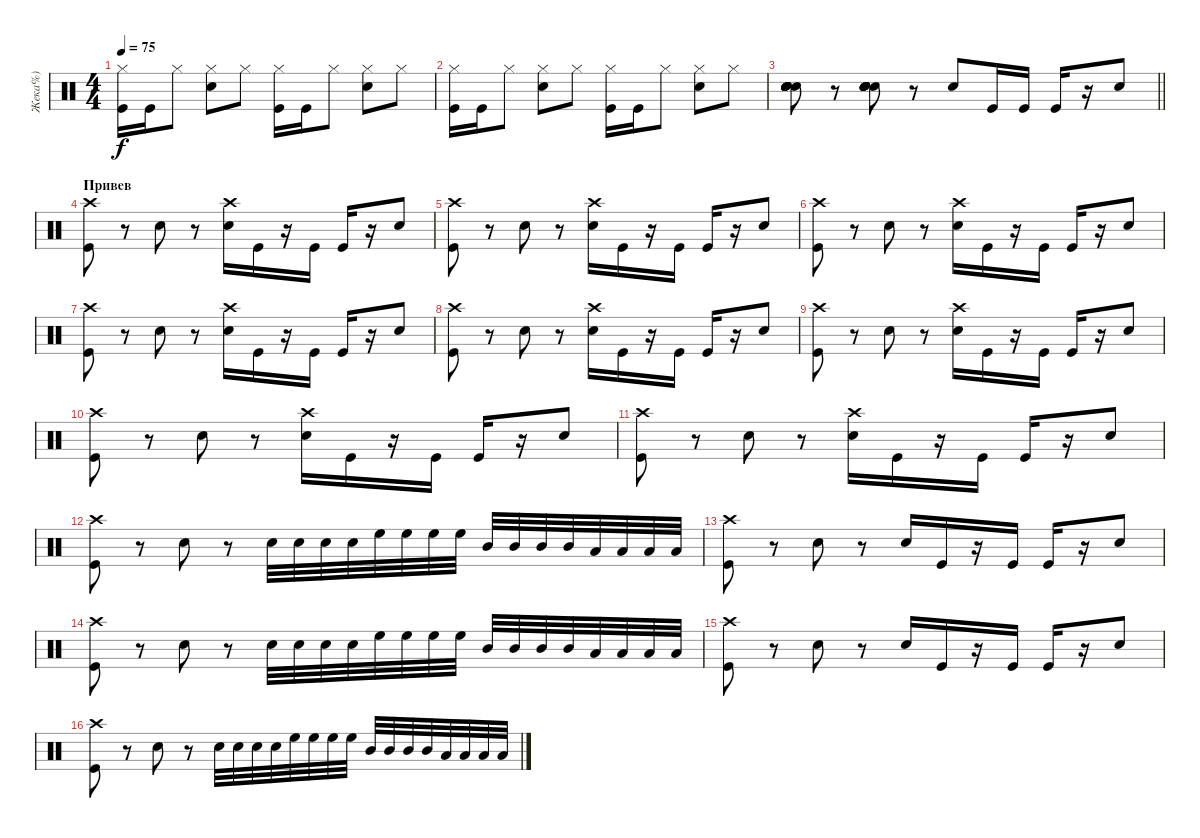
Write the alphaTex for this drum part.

\track ("Жека%)" "Жека%)") {instrument percussion}
\staff {score}
\articulation defaults
\ts (4 4)
\tempo 75
\clef neutral
\ks c
("Hi-Hat (closed)" "Kick (hit)").16{dy f} "Kick (hit)".16 "Hi-Hat (closed)".8 ("Hi-Hat (closed)" "Snare (hit) 2").8 "Hi-Hat (closed)".8 ("Hi-Hat (closed)" "Kick (hit)").16 "Kick (hit)".16 "Hi-Hat (closed)".8 ("Hi-Hat (closed)" "Snare (hit) 2").8 "Hi-Hat (closed)".8 |
("Hi-Hat (closed)" "Kick (hit)").16 "Kick (hit)".16 "Hi-Hat (closed)".8 ("Hi-Hat (closed)" "Snare (hit) 2").8 "Hi-Hat (closed)".8 ("Hi-Hat (closed)" "Kick (hit)").16 "Kick (hit)".16 "Hi-Hat (closed)".8 ("Hi-Hat (closed)" "Snare (hit) 2").8 "Hi-Hat (closed)".8 |
\barLineRight lightlight
("Snare (hit) 2" "Snare (hit) 2" "Snare (hit) 2" "Snare (hit) 2" "Snare (hit) 2" "Snare (hit) 2").8 r.8 ("Snare (hit) 2" "Snare (hit) 2" "Snare (hit) 2" "Snare (hit) 2" "Snare (hit) 2" "Snare (hit) 2").8 r.8 "Snare (hit) 2".8 "Kick (hit)".16 "Kick (hit)".16 "Kick (hit)".16 r.16 "Snare (hit) 2".8 |
\section ("" "Привев")
("Kick (hit)" "Crash high (hit)").8 r.8 "Snare (hit) 2".8 r.8 ("Snare (hit) 2" "Crash high (hit)").16 "Kick (hit)".16 r.16 "Kick (hit)".16 "Kick (hit)".16 r.16 "Snare (hit) 2".8 |
("Kick (hit)" "Crash high (hit)").8 r.8 "Snare (hit) 2".8 r.8 ("Snare (hit) 2" "Crash high (hit)").16 "Kick (hit)".16 r.16 "Kick (hit)".16 "Kick (hit)".16 r.16 "Snare (hit) 2".8 |
("Kick (hit)" "Crash high (hit)").8 r.8 "Snare (hit) 2".8 r.8 ("Snare (hit) 2" "Crash high (hit)").16 "Kick (hit)".16 r.16 "Kick (hit)".16 "Kick (hit)".16 r.16 "Snare (hit) 2".8 |
("Kick (hit)" "Crash high (hit)").8 r.8 "Snare (hit) 2".8 r.8 ("Snare (hit) 2" "Crash high (hit)").16 "Kick (hit)".16 r.16 "Kick (hit)".16 "Kick (hit)".16 r.16 "Snare (hit) 2".8 |
("Kick (hit)" "Crash high (hit)").8 r.8 "Snare (hit) 2".8 r.8 ("Snare (hit) 2" "Crash high (hit)").16 "Kick (hit)".16 r.16 "Kick (hit)".16 "Kick (hit)".16 r.16 "Snare (hit) 2".8 |
("Kick (hit)" "Crash high (hit)").8 r.8 "Snare (hit) 2".8 r.8 ("Snare (hit) 2" "Crash high (hit)").16 "Kick (hit)".16 r.16 "Kick (hit)".16 "Kick (hit)".16 r.16 "Snare (hit) 2".8 |
("Kick (hit)" "Crash high (hit)").8 r.8 "Snare (hit) 2".8 r.8 ("Snare (hit) 2" "Crash high (hit)").16 "Kick (hit)".16 r.16 "Kick (hit)".16 "Kick (hit)".16 r.16 "Snare (hit) 2".8 |
("Kick (hit)" "Crash high (hit)").8 r.8 "Snare (hit) 2".8 r.8 ("Snare (hit) 2" "Crash high (hit)").16 "Kick (hit)".16 r.16 "Kick (hit)".16 "Kick (hit)".16 r.16 "Snare (hit) 2".8 |
("Kick (hit)" "Crash high (hit)").8 r.8 "Snare (hit) 2".8 r.8 "Snare (hit) 2".32 "Snare (hit) 2".32 "Snare (hit) 2".32 "Snare (hit) 2".32 "High Floor Tom (hit)".32 "High Floor Tom (hit)".32 "High Floor Tom (hit)".32 "High Floor Tom (hit)".32 "Mid Tom (hit)".32 "Mid Tom (hit)".32 "Mid Tom (hit)".32 "Mid Tom (hit)".32 "Low Tom (hit)".32 "Low Tom (hit)".32 "Low Tom (hit)".32 "Low Tom (hit)".32 |
("Kick (hit)" "Crash high (hit)").8 r.8 "Snare (hit) 2".8 r.8 "Snare (hit) 2".16 "Kick (hit)".16 r.16 "Kick (hit)".16 "Kick (hit)".16 r.16 "Snare (hit) 2".8 |
("Kick (hit)" "Crash high (hit)").8 r.8 "Snare (hit) 2".8 r.8 "Snare (hit) 2".32 "Snare (hit) 2".32 "Snare (hit) 2".32 "Snare (hit) 2".32 "High Floor Tom (hit)".32 "High Floor Tom (hit)".32 "High Floor Tom (hit)".32 "High Floor Tom (hit)".32 "Mid Tom (hit)".32 "Mid Tom (hit)".32 "Mid Tom (hit)".32 "Mid Tom (hit)".32 "Low Tom (hit)".32 "Low Tom (hit)".32 "Low Tom (hit)".32 "Low Tom (hit)".32 |
("Kick (hit)" "Crash high (hit)").8 r.8 "Snare (hit) 2".8 r.8 "Snare (hit) 2".16 "Kick (hit)".16 r.16 "Kick (hit)".16 "Kick (hit)".16 r.16 "Snare (hit) 2".8 |
("Kick (hit)" "Crash high (hit)").8 r.8 "Snare (hit) 2".8 r.8 "Snare (hit) 2".32 "Snare (hit) 2".32 "Snare (hit) 2".32 "Snare (hit) 2".32 "High Floor Tom (hit)".32 "High Floor Tom (hit)".32 "High Floor Tom (hit)".32 "High Floor Tom (hit)".32 "Mid Tom (hit)".32 "Mid Tom (hit)".32 "Mid Tom (hit)".32 "Mid Tom (hit)".32 "Low Tom (hit)".32 "Low Tom (hit)".32 "Low Tom (hit)".32 "Low Tom (hit)".32
